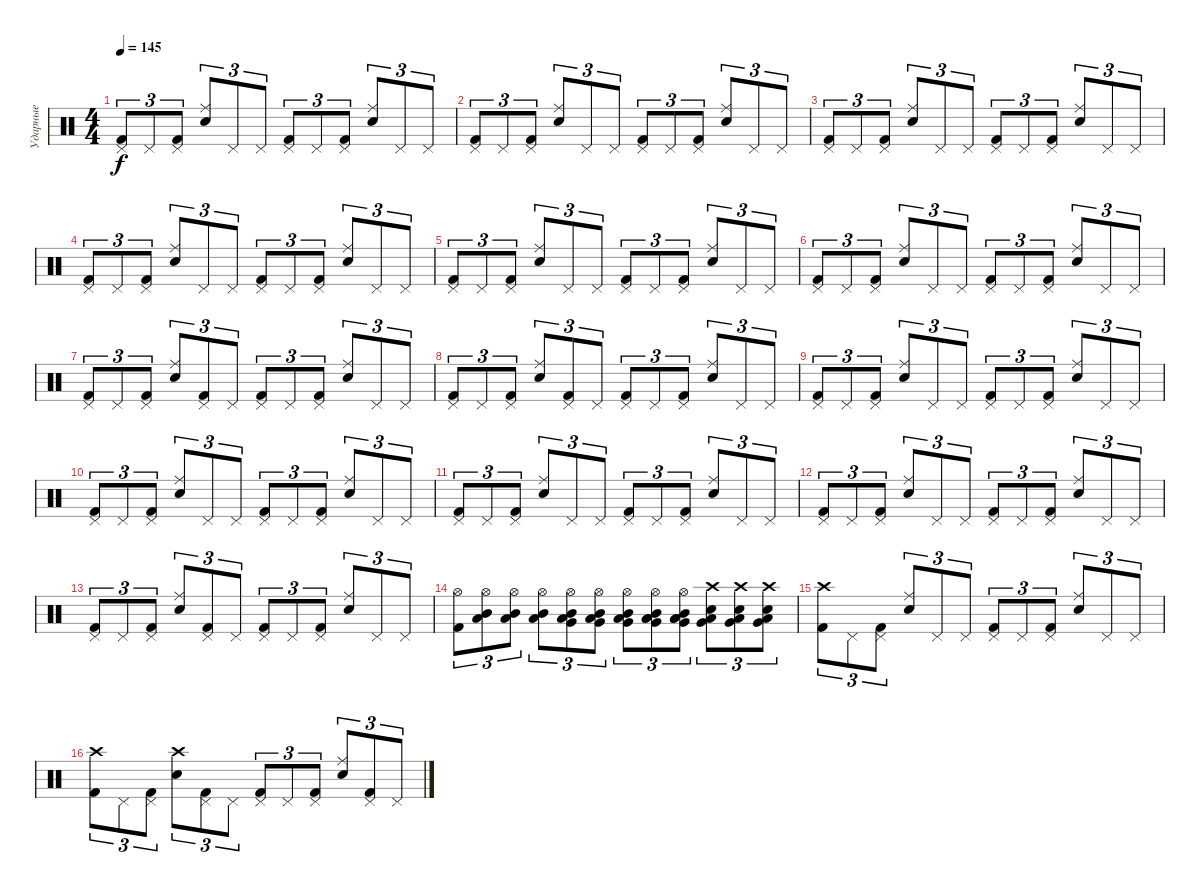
\track ("Ударные" "Ударные") {instrument percussion}
\staff {score}
\articulation defaults
\ts (4 4)
\tempo 145
\clef neutral
\ks c
("Kick (hit) 2" "Pedal Hi-Hat (hit)").8{tu (3 2) dy f} "Pedal Hi-Hat (hit)".8{tu (3 2)} ("Kick (hit) 2" "Pedal Hi-Hat (hit)").8{tu (3 2)} ("Electric Snare (hit)" "Ride (middle)").8{tu (3 2)} "Pedal Hi-Hat (hit)".8{tu (3 2)} "Pedal Hi-Hat (hit)".8{tu (3 2)} ("Kick (hit) 2" "Pedal Hi-Hat (hit)").8{tu (3 2)} "Pedal Hi-Hat (hit)".8{tu (3 2)} ("Pedal Hi-Hat (hit)" "Kick (hit) 2").8{tu (3 2)} ("Electric Snare (hit)" "Ride (middle)").8{tu (3 2)} "Pedal Hi-Hat (hit)".8{tu (3 2)} "Pedal Hi-Hat (hit)".8{tu (3 2)} |
("Kick (hit) 2" "Pedal Hi-Hat (hit)").8{tu (3 2)} "Pedal Hi-Hat (hit)".8{tu (3 2)} ("Kick (hit) 2" "Pedal Hi-Hat (hit)").8{tu (3 2)} ("Electric Snare (hit)" "Ride (middle)").8{tu (3 2)} "Pedal Hi-Hat (hit)".8{tu (3 2)} "Pedal Hi-Hat (hit)".8{tu (3 2)} ("Kick (hit) 2" "Pedal Hi-Hat (hit)").8{tu (3 2)} "Pedal Hi-Hat (hit)".8{tu (3 2)} ("Pedal Hi-Hat (hit)" "Kick (hit) 2").8{tu (3 2)} ("Electric Snare (hit)" "Ride (middle)").8{tu (3 2)} "Pedal Hi-Hat (hit)".8{tu (3 2)} "Pedal Hi-Hat (hit)".8{tu (3 2)} |
("Kick (hit) 2" "Pedal Hi-Hat (hit)").8{tu (3 2)} "Pedal Hi-Hat (hit)".8{tu (3 2)} ("Kick (hit) 2" "Pedal Hi-Hat (hit)").8{tu (3 2)} ("Electric Snare (hit)" "Ride (middle)").8{tu (3 2)} "Pedal Hi-Hat (hit)".8{tu (3 2)} "Pedal Hi-Hat (hit)".8{tu (3 2)} ("Kick (hit) 2" "Pedal Hi-Hat (hit)").8{tu (3 2)} "Pedal Hi-Hat (hit)".8{tu (3 2)} ("Pedal Hi-Hat (hit)" "Kick (hit) 2").8{tu (3 2)} ("Electric Snare (hit)" "Ride (middle)").8{tu (3 2)} "Pedal Hi-Hat (hit)".8{tu (3 2)} "Pedal Hi-Hat (hit)".8{tu (3 2)} |
("Kick (hit) 2" "Pedal Hi-Hat (hit)").8{tu (3 2)} "Pedal Hi-Hat (hit)".8{tu (3 2)} ("Kick (hit) 2" "Pedal Hi-Hat (hit)").8{tu (3 2)} ("Electric Snare (hit)" "Ride (middle)").8{tu (3 2)} "Pedal Hi-Hat (hit)".8{tu (3 2)} "Pedal Hi-Hat (hit)".8{tu (3 2)} ("Kick (hit) 2" "Pedal Hi-Hat (hit)").8{tu (3 2)} "Pedal Hi-Hat (hit)".8{tu (3 2)} ("Pedal Hi-Hat (hit)" "Kick (hit) 2").8{tu (3 2)} ("Electric Snare (hit)" "Ride (middle)").8{tu (3 2)} "Pedal Hi-Hat (hit)".8{tu (3 2)} "Pedal Hi-Hat (hit)".8{tu (3 2)} |
("Kick (hit) 2" "Pedal Hi-Hat (hit)").8{tu (3 2)} "Pedal Hi-Hat (hit)".8{tu (3 2)} ("Kick (hit) 2" "Pedal Hi-Hat (hit)").8{tu (3 2)} ("Electric Snare (hit)" "Ride (middle)").8{tu (3 2)} "Pedal Hi-Hat (hit)".8{tu (3 2)} "Pedal Hi-Hat (hit)".8{tu (3 2)} ("Kick (hit) 2" "Pedal Hi-Hat (hit)").8{tu (3 2)} "Pedal Hi-Hat (hit)".8{tu (3 2)} ("Pedal Hi-Hat (hit)" "Kick (hit) 2").8{tu (3 2)} ("Electric Snare (hit)" "Ride (middle)").8{tu (3 2)} "Pedal Hi-Hat (hit)".8{tu (3 2)} "Pedal Hi-Hat (hit)".8{tu (3 2)} |
("Kick (hit) 2" "Pedal Hi-Hat (hit)").8{tu (3 2)} "Pedal Hi-Hat (hit)".8{tu (3 2)} ("Kick (hit) 2" "Pedal Hi-Hat (hit)").8{tu (3 2)} ("Electric Snare (hit)" "Ride (middle)").8{tu (3 2)} "Pedal Hi-Hat (hit)".8{tu (3 2)} "Pedal Hi-Hat (hit)".8{tu (3 2)} ("Kick (hit) 2" "Pedal Hi-Hat (hit)").8{tu (3 2)} "Pedal Hi-Hat (hit)".8{tu (3 2)} ("Pedal Hi-Hat (hit)" "Kick (hit) 2").8{tu (3 2)} ("Electric Snare (hit)" "Ride (middle)").8{tu (3 2)} "Pedal Hi-Hat (hit)".8{tu (3 2)} "Pedal Hi-Hat (hit)".8{tu (3 2)} |
("Kick (hit) 2" "Pedal Hi-Hat (hit)").8{tu (3 2)} "Pedal Hi-Hat (hit)".8{tu (3 2)} ("Kick (hit) 2" "Pedal Hi-Hat (hit)").8{tu (3 2)} ("Electric Snare (hit)" "Ride (middle)").8{tu (3 2)} ("Kick (hit) 2" "Pedal Hi-Hat (hit)").8{tu (3 2)} "Pedal Hi-Hat (hit)".8{tu (3 2)} ("Kick (hit) 2" "Pedal Hi-Hat (hit)").8{tu (3 2)} "Pedal Hi-Hat (hit)".8{tu (3 2)} ("Pedal Hi-Hat (hit)" "Kick (hit) 2").8{tu (3 2)} ("Electric Snare (hit)" "Ride (middle)").8{tu (3 2)} "Pedal Hi-Hat (hit)".8{tu (3 2)} "Pedal Hi-Hat (hit)".8{tu (3 2)} |
("Kick (hit) 2" "Pedal Hi-Hat (hit)").8{tu (3 2)} "Pedal Hi-Hat (hit)".8{tu (3 2)} ("Kick (hit) 2" "Pedal Hi-Hat (hit)").8{tu (3 2)} ("Electric Snare (hit)" "Ride (middle)").8{tu (3 2)} ("Kick (hit) 2" "Pedal Hi-Hat (hit)").8{tu (3 2)} "Pedal Hi-Hat (hit)".8{tu (3 2)} ("Kick (hit) 2" "Pedal Hi-Hat (hit)").8{tu (3 2)} "Pedal Hi-Hat (hit)".8{tu (3 2)} ("Pedal Hi-Hat (hit)" "Kick (hit) 2").8{tu (3 2)} ("Electric Snare (hit)" "Ride (middle)").8{tu (3 2)} "Pedal Hi-Hat (hit)".8{tu (3 2)} "Pedal Hi-Hat (hit)".8{tu (3 2)} |
("Kick (hit) 2" "Pedal Hi-Hat (hit)").8{tu (3 2)} "Pedal Hi-Hat (hit)".8{tu (3 2)} ("Kick (hit) 2" "Pedal Hi-Hat (hit)").8{tu (3 2)} ("Electric Snare (hit)" "Ride (middle)").8{tu (3 2)} "Pedal Hi-Hat (hit)".8{tu (3 2)} "Pedal Hi-Hat (hit)".8{tu (3 2)} ("Kick (hit) 2" "Pedal Hi-Hat (hit)").8{tu (3 2)} "Pedal Hi-Hat (hit)".8{tu (3 2)} ("Pedal Hi-Hat (hit)" "Kick (hit) 2").8{tu (3 2)} ("Electric Snare (hit)" "Ride (middle)").8{tu (3 2)} "Pedal Hi-Hat (hit)".8{tu (3 2)} "Pedal Hi-Hat (hit)".8{tu (3 2)} |
("Kick (hit) 2" "Pedal Hi-Hat (hit)").8{tu (3 2)} "Pedal Hi-Hat (hit)".8{tu (3 2)} ("Kick (hit) 2" "Pedal Hi-Hat (hit)").8{tu (3 2)} ("Electric Snare (hit)" "Ride (middle)").8{tu (3 2)} "Pedal Hi-Hat (hit)".8{tu (3 2)} "Pedal Hi-Hat (hit)".8{tu (3 2)} ("Kick (hit) 2" "Pedal Hi-Hat (hit)").8{tu (3 2)} "Pedal Hi-Hat (hit)".8{tu (3 2)} ("Pedal Hi-Hat (hit)" "Kick (hit) 2").8{tu (3 2)} ("Electric Snare (hit)" "Ride (middle)").8{tu (3 2)} "Pedal Hi-Hat (hit)".8{tu (3 2)} "Pedal Hi-Hat (hit)".8{tu (3 2)} |
("Kick (hit) 2" "Pedal Hi-Hat (hit)").8{tu (3 2)} "Pedal Hi-Hat (hit)".8{tu (3 2)} ("Kick (hit) 2" "Pedal Hi-Hat (hit)").8{tu (3 2)} ("Electric Snare (hit)" "Ride (middle)").8{tu (3 2)} "Pedal Hi-Hat (hit)".8{tu (3 2)} "Pedal Hi-Hat (hit)".8{tu (3 2)} ("Kick (hit) 2" "Pedal Hi-Hat (hit)").8{tu (3 2)} "Pedal Hi-Hat (hit)".8{tu (3 2)} ("Pedal Hi-Hat (hit)" "Kick (hit) 2").8{tu (3 2)} ("Electric Snare (hit)" "Ride (middle)").8{tu (3 2)} "Pedal Hi-Hat (hit)".8{tu (3 2)} "Pedal Hi-Hat (hit)".8{tu (3 2)} |
("Kick (hit) 2" "Pedal Hi-Hat (hit)").8{tu (3 2)} "Pedal Hi-Hat (hit)".8{tu (3 2)} ("Kick (hit) 2" "Pedal Hi-Hat (hit)").8{tu (3 2)} ("Electric Snare (hit)" "Ride (middle)").8{tu (3 2)} "Pedal Hi-Hat (hit)".8{tu (3 2)} "Pedal Hi-Hat (hit)".8{tu (3 2)} ("Kick (hit) 2" "Pedal Hi-Hat (hit)").8{tu (3 2)} "Pedal Hi-Hat (hit)".8{tu (3 2)} ("Pedal Hi-Hat (hit)" "Kick (hit) 2").8{tu (3 2)} ("Electric Snare (hit)" "Ride (middle)").8{tu (3 2)} "Pedal Hi-Hat (hit)".8{tu (3 2)} "Pedal Hi-Hat (hit)".8{tu (3 2)} |
("Kick (hit) 2" "Pedal Hi-Hat (hit)").8{tu (3 2)} "Pedal Hi-Hat (hit)".8{tu (3 2)} ("Kick (hit) 2" "Pedal Hi-Hat (hit)").8{tu (3 2)} ("Electric Snare (hit)" "Ride (middle)").8{tu (3 2)} ("Kick (hit) 2" "Pedal Hi-Hat (hit)").8{tu (3 2)} "Pedal Hi-Hat (hit)".8{tu (3 2)} ("Kick (hit) 2" "Pedal Hi-Hat (hit)").8{tu (3 2)} "Pedal Hi-Hat (hit)".8{tu (3 2)} ("Pedal Hi-Hat (hit)" "Kick (hit) 2").8{tu (3 2)} ("Electric Snare (hit)" "Ride (middle)").8{tu (3 2)} "Pedal Hi-Hat (hit)".8{tu (3 2)} "Pedal Hi-Hat (hit)".8{tu (3 2)} |
("Kick (hit) 2" "Hi-Hat (open)").8{tu (3 2)} ("Low Tom (hit)" "Mid Tom (hit)" "Hi-Hat (open)").8{tu (3 2)} ("Mid Tom (hit)" "Low Tom (hit)" "Hi-Hat (open)").8{tu (3 2)} ("Low Tom (hit)" "Mid Tom (hit)" "Hi-Hat (open)").8{tu (3 2)} ("Low Tom (hit)" "Mid Tom (hit)" "Very Low Tom (hit)" "Hi-Hat (open)").8{tu (3 2)} ("Low Tom (hit)" "Mid Tom (hit)" "Very Low Tom (hit)" "Hi-Hat (open)").8{tu (3 2)} ("Low Tom (hit)" "Mid Tom (hit)" "Very Low Tom (hit)" "Hi-Hat (open)").8{tu (3 2)} ("Low Tom (hit)" "Very Low Tom (hit)" "Low Floor Tom (hit)" "Mid Tom (hit)" "Hi-Hat (open)").8{tu (3 2)} ("Low Floor Tom (hit)" "Very Low Tom (hit)" "Low Tom (hit)" "Mid Tom (hit)" "Hi-Hat (open)").8{tu (3 2)} ("Electric Snare (hit)" "Very Low Tom (hit)" "Low Tom (hit)" "Crash high (hit)").8{tu (3 2)} ("Electric Snare (hit)" "Very Low Tom (hit)" "Low Tom (hit)" "Crash high (hit)").8{tu (3 2)} ("Electric Snare (hit)" "Very Low Tom (hit)" "Low Tom (hit)" "Crash high (hit)").8{tu (3 2)} |
("Kick (hit) 2" "Crash high (hit)").8{tu (3 2)} "Pedal Hi-Hat (hit)".8{tu (3 2)} ("Kick (hit) 2" "Pedal Hi-Hat (hit)").8{tu (3 2)} ("Electric Snare (hit)" "Ride (middle)").8{tu (3 2)} "Pedal Hi-Hat (hit)".8{tu (3 2)} "Pedal Hi-Hat (hit)".8{tu (3 2)} ("Kick (hit) 2" "Pedal Hi-Hat (hit)").8{tu (3 2)} "Pedal Hi-Hat (hit)".8{tu (3 2)} ("Pedal Hi-Hat (hit)" "Kick (hit) 2").8{tu (3 2)} ("Electric Snare (hit)" "Ride (middle)").8{tu (3 2)} "Pedal Hi-Hat (hit)".8{tu (3 2)} "Pedal Hi-Hat (hit)".8{tu (3 2)} |
("Kick (hit) 2" "Crash high (hit)").8{tu (3 2)} "Pedal Hi-Hat (hit)".8{tu (3 2)} ("Kick (hit) 2" "Pedal Hi-Hat (hit)").8{tu (3 2)} ("Electric Snare (hit)" "Crash high (hit)").8{tu (3 2)} ("Kick (hit) 2" "Pedal Hi-Hat (hit)").8{tu (3 2)} "Pedal Hi-Hat (hit)".8{tu (3 2)} ("Kick (hit) 2" "Pedal Hi-Hat (hit)").8{tu (3 2)} "Pedal Hi-Hat (hit)".8{tu (3 2)} ("Pedal Hi-Hat (hit)" "Kick (hit) 2").8{tu (3 2)} ("Electric Snare (hit)" "Ride (middle)").8{tu (3 2)} ("Kick (hit) 2" "Pedal Hi-Hat (hit)").8{tu (3 2)} "Pedal Hi-Hat (hit)".8{tu (3 2)}
